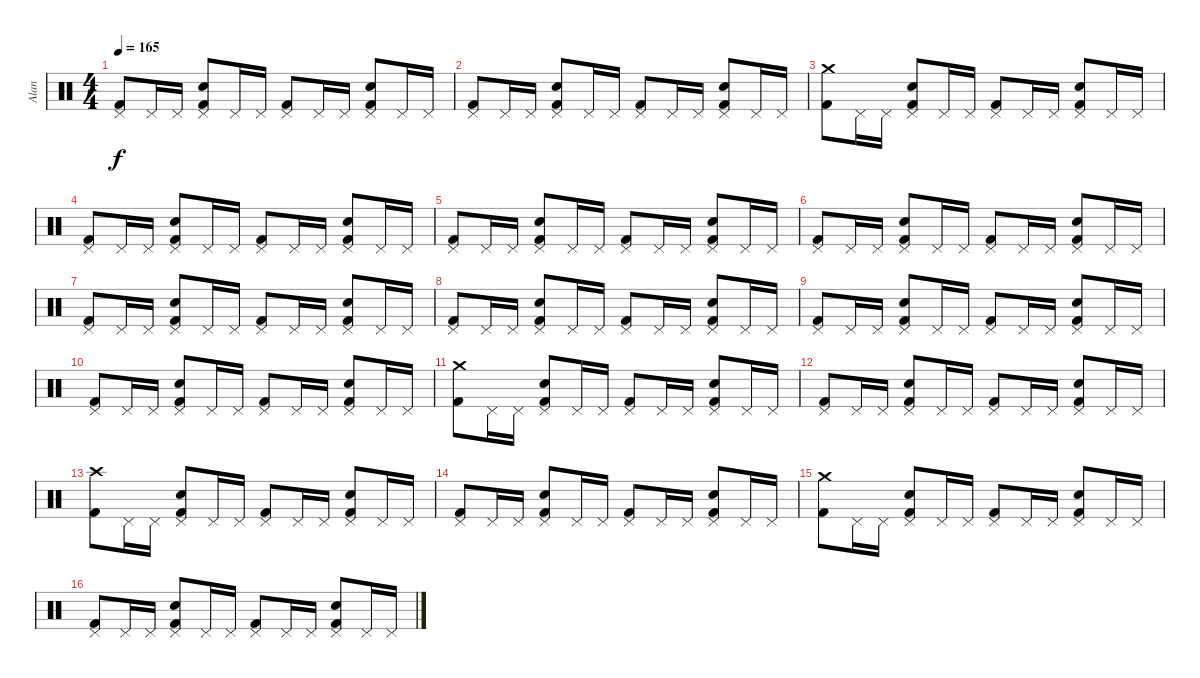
\track ("Alan" "Alan") {instrument percussion}
\staff {score}
\articulation defaults
\ts (4 4)
\tempo 165
\clef neutral
\ks c
("Kick (hit) 2" "Pedal Hi-Hat (hit)").8{dy f} "Pedal Hi-Hat (hit)".16 "Pedal Hi-Hat (hit)".16 ("Pedal Hi-Hat (hit)" "Kick (hit) 2" "Snare (hit) 2").8 "Pedal Hi-Hat (hit)".16 "Pedal Hi-Hat (hit)".16 ("Pedal Hi-Hat (hit)" "Kick (hit) 2").8 "Pedal Hi-Hat (hit)".16 "Pedal Hi-Hat (hit)".16 ("Pedal Hi-Hat (hit)" "Kick (hit) 2" "Snare (hit) 2").8 "Pedal Hi-Hat (hit)".16 "Pedal Hi-Hat (hit)".16 |
("Kick (hit) 2" "Pedal Hi-Hat (hit)").8 "Pedal Hi-Hat (hit)".16 "Pedal Hi-Hat (hit)".16 ("Pedal Hi-Hat (hit)" "Kick (hit) 2" "Snare (hit) 2").8 "Pedal Hi-Hat (hit)".16 "Pedal Hi-Hat (hit)".16 ("Pedal Hi-Hat (hit)" "Kick (hit) 2").8 "Pedal Hi-Hat (hit)".16 "Pedal Hi-Hat (hit)".16 ("Pedal Hi-Hat (hit)" "Kick (hit) 2" "Snare (hit) 2").8 "Pedal Hi-Hat (hit)".16 "Pedal Hi-Hat (hit)".16 |
("Kick (hit) 2" "Crash medium (hit)").8 "Pedal Hi-Hat (hit)".16 "Pedal Hi-Hat (hit)".16 ("Pedal Hi-Hat (hit)" "Kick (hit) 2" "Snare (hit) 2").8 "Pedal Hi-Hat (hit)".16 "Pedal Hi-Hat (hit)".16 ("Pedal Hi-Hat (hit)" "Kick (hit) 2").8 "Pedal Hi-Hat (hit)".16 "Pedal Hi-Hat (hit)".16 ("Pedal Hi-Hat (hit)" "Kick (hit) 2" "Snare (hit) 2").8 "Pedal Hi-Hat (hit)".16 "Pedal Hi-Hat (hit)".16 |
("Kick (hit) 2" "Pedal Hi-Hat (hit)").8 "Pedal Hi-Hat (hit)".16 "Pedal Hi-Hat (hit)".16 ("Pedal Hi-Hat (hit)" "Kick (hit) 2" "Snare (hit) 2").8 "Pedal Hi-Hat (hit)".16 "Pedal Hi-Hat (hit)".16 ("Pedal Hi-Hat (hit)" "Kick (hit) 2").8 "Pedal Hi-Hat (hit)".16 "Pedal Hi-Hat (hit)".16 ("Pedal Hi-Hat (hit)" "Kick (hit) 2" "Snare (hit) 2").8 "Pedal Hi-Hat (hit)".16 "Pedal Hi-Hat (hit)".16 |
("Kick (hit) 2" "Pedal Hi-Hat (hit)").8 "Pedal Hi-Hat (hit)".16 "Pedal Hi-Hat (hit)".16 ("Pedal Hi-Hat (hit)" "Kick (hit) 2" "Snare (hit) 2").8 "Pedal Hi-Hat (hit)".16 "Pedal Hi-Hat (hit)".16 ("Pedal Hi-Hat (hit)" "Kick (hit) 2").8 "Pedal Hi-Hat (hit)".16 "Pedal Hi-Hat (hit)".16 ("Pedal Hi-Hat (hit)" "Kick (hit) 2" "Snare (hit) 2").8 "Pedal Hi-Hat (hit)".16 "Pedal Hi-Hat (hit)".16 |
("Kick (hit) 2" "Pedal Hi-Hat (hit)").8 "Pedal Hi-Hat (hit)".16 "Pedal Hi-Hat (hit)".16 ("Pedal Hi-Hat (hit)" "Kick (hit) 2" "Snare (hit) 2").8 "Pedal Hi-Hat (hit)".16 "Pedal Hi-Hat (hit)".16 ("Pedal Hi-Hat (hit)" "Kick (hit) 2").8 "Pedal Hi-Hat (hit)".16 "Pedal Hi-Hat (hit)".16 ("Pedal Hi-Hat (hit)" "Kick (hit) 2" "Snare (hit) 2").8 "Pedal Hi-Hat (hit)".16 "Pedal Hi-Hat (hit)".16 |
("Kick (hit) 2" "Pedal Hi-Hat (hit)").8 "Pedal Hi-Hat (hit)".16 "Pedal Hi-Hat (hit)".16 ("Pedal Hi-Hat (hit)" "Kick (hit) 2" "Snare (hit) 2").8 "Pedal Hi-Hat (hit)".16 "Pedal Hi-Hat (hit)".16 ("Pedal Hi-Hat (hit)" "Kick (hit) 2").8 "Pedal Hi-Hat (hit)".16 "Pedal Hi-Hat (hit)".16 ("Pedal Hi-Hat (hit)" "Kick (hit) 2" "Snare (hit) 2").8 "Pedal Hi-Hat (hit)".16 "Pedal Hi-Hat (hit)".16 |
("Kick (hit) 2" "Pedal Hi-Hat (hit)").8 "Pedal Hi-Hat (hit)".16 "Pedal Hi-Hat (hit)".16 ("Pedal Hi-Hat (hit)" "Kick (hit) 2" "Snare (hit) 2").8 "Pedal Hi-Hat (hit)".16 "Pedal Hi-Hat (hit)".16 ("Pedal Hi-Hat (hit)" "Kick (hit) 2").8 "Pedal Hi-Hat (hit)".16 "Pedal Hi-Hat (hit)".16 ("Pedal Hi-Hat (hit)" "Kick (hit) 2" "Snare (hit) 2").8 "Pedal Hi-Hat (hit)".16 "Pedal Hi-Hat (hit)".16 |
("Kick (hit) 2" "Pedal Hi-Hat (hit)").8 "Pedal Hi-Hat (hit)".16 "Pedal Hi-Hat (hit)".16 ("Pedal Hi-Hat (hit)" "Kick (hit) 2" "Snare (hit) 2").8 "Pedal Hi-Hat (hit)".16 "Pedal Hi-Hat (hit)".16 ("Pedal Hi-Hat (hit)" "Kick (hit) 2").8 "Pedal Hi-Hat (hit)".16 "Pedal Hi-Hat (hit)".16 ("Pedal Hi-Hat (hit)" "Kick (hit) 2" "Snare (hit) 2").8 "Pedal Hi-Hat (hit)".16 "Pedal Hi-Hat (hit)".16 |
("Kick (hit) 2" "Pedal Hi-Hat (hit)").8 "Pedal Hi-Hat (hit)".16 "Pedal Hi-Hat (hit)".16 ("Pedal Hi-Hat (hit)" "Kick (hit) 2" "Snare (hit) 2").8 "Pedal Hi-Hat (hit)".16 "Pedal Hi-Hat (hit)".16 ("Pedal Hi-Hat (hit)" "Kick (hit) 2").8 "Pedal Hi-Hat (hit)".16 "Pedal Hi-Hat (hit)".16 ("Pedal Hi-Hat (hit)" "Kick (hit) 2" "Snare (hit) 2").8 "Pedal Hi-Hat (hit)".16 "Pedal Hi-Hat (hit)".16 |
("Kick (hit) 2" "Crash medium (hit)").8 "Pedal Hi-Hat (hit)".16 "Pedal Hi-Hat (hit)".16 ("Pedal Hi-Hat (hit)" "Kick (hit) 2" "Snare (hit) 2").8 "Pedal Hi-Hat (hit)".16 "Pedal Hi-Hat (hit)".16 ("Pedal Hi-Hat (hit)" "Kick (hit) 2").8 "Pedal Hi-Hat (hit)".16 "Pedal Hi-Hat (hit)".16 ("Pedal Hi-Hat (hit)" "Kick (hit) 2" "Snare (hit) 2").8 "Pedal Hi-Hat (hit)".16 "Pedal Hi-Hat (hit)".16 |
("Kick (hit) 2" "Pedal Hi-Hat (hit)").8 "Pedal Hi-Hat (hit)".16 "Pedal Hi-Hat (hit)".16 ("Pedal Hi-Hat (hit)" "Kick (hit) 2" "Snare (hit) 2").8 "Pedal Hi-Hat (hit)".16 "Pedal Hi-Hat (hit)".16 ("Pedal Hi-Hat (hit)" "Kick (hit) 2").8 "Pedal Hi-Hat (hit)".16 "Pedal Hi-Hat (hit)".16 ("Pedal Hi-Hat (hit)" "Kick (hit) 2" "Snare (hit) 2").8 "Pedal Hi-Hat (hit)".16 "Pedal Hi-Hat (hit)".16 |
("Kick (hit) 2" "Crash high (hit)").8 "Pedal Hi-Hat (hit)".16 "Pedal Hi-Hat (hit)".16 ("Pedal Hi-Hat (hit)" "Kick (hit) 2" "Snare (hit) 2").8 "Pedal Hi-Hat (hit)".16 "Pedal Hi-Hat (hit)".16 ("Pedal Hi-Hat (hit)" "Kick (hit) 2").8 "Pedal Hi-Hat (hit)".16 "Pedal Hi-Hat (hit)".16 ("Pedal Hi-Hat (hit)" "Kick (hit) 2" "Snare (hit) 2").8 "Pedal Hi-Hat (hit)".16 "Pedal Hi-Hat (hit)".16 |
("Kick (hit) 2" "Pedal Hi-Hat (hit)").8 "Pedal Hi-Hat (hit)".16 "Pedal Hi-Hat (hit)".16 ("Pedal Hi-Hat (hit)" "Kick (hit) 2" "Snare (hit) 2").8 "Pedal Hi-Hat (hit)".16 "Pedal Hi-Hat (hit)".16 ("Pedal Hi-Hat (hit)" "Kick (hit) 2").8 "Pedal Hi-Hat (hit)".16 "Pedal Hi-Hat (hit)".16 ("Pedal Hi-Hat (hit)" "Kick (hit) 2" "Snare (hit) 2").8 "Pedal Hi-Hat (hit)".16 "Pedal Hi-Hat (hit)".16 |
("Kick (hit) 2" "Crash medium (hit)").8 "Pedal Hi-Hat (hit)".16 "Pedal Hi-Hat (hit)".16 ("Pedal Hi-Hat (hit)" "Kick (hit) 2" "Snare (hit) 2").8 "Pedal Hi-Hat (hit)".16 "Pedal Hi-Hat (hit)".16 ("Pedal Hi-Hat (hit)" "Kick (hit) 2").8 "Pedal Hi-Hat (hit)".16 "Pedal Hi-Hat (hit)".16 ("Pedal Hi-Hat (hit)" "Kick (hit) 2" "Snare (hit) 2").8 "Pedal Hi-Hat (hit)".16 "Pedal Hi-Hat (hit)".16 |
("Kick (hit) 2" "Pedal Hi-Hat (hit)").8 "Pedal Hi-Hat (hit)".16 "Pedal Hi-Hat (hit)".16 ("Pedal Hi-Hat (hit)" "Kick (hit) 2" "Snare (hit) 2").8 "Pedal Hi-Hat (hit)".16 "Pedal Hi-Hat (hit)".16 ("Pedal Hi-Hat (hit)" "Kick (hit) 2").8 "Pedal Hi-Hat (hit)".16 "Pedal Hi-Hat (hit)".16 ("Pedal Hi-Hat (hit)" "Kick (hit) 2" "Snare (hit) 2").8 "Pedal Hi-Hat (hit)".16 "Pedal Hi-Hat (hit)".16
